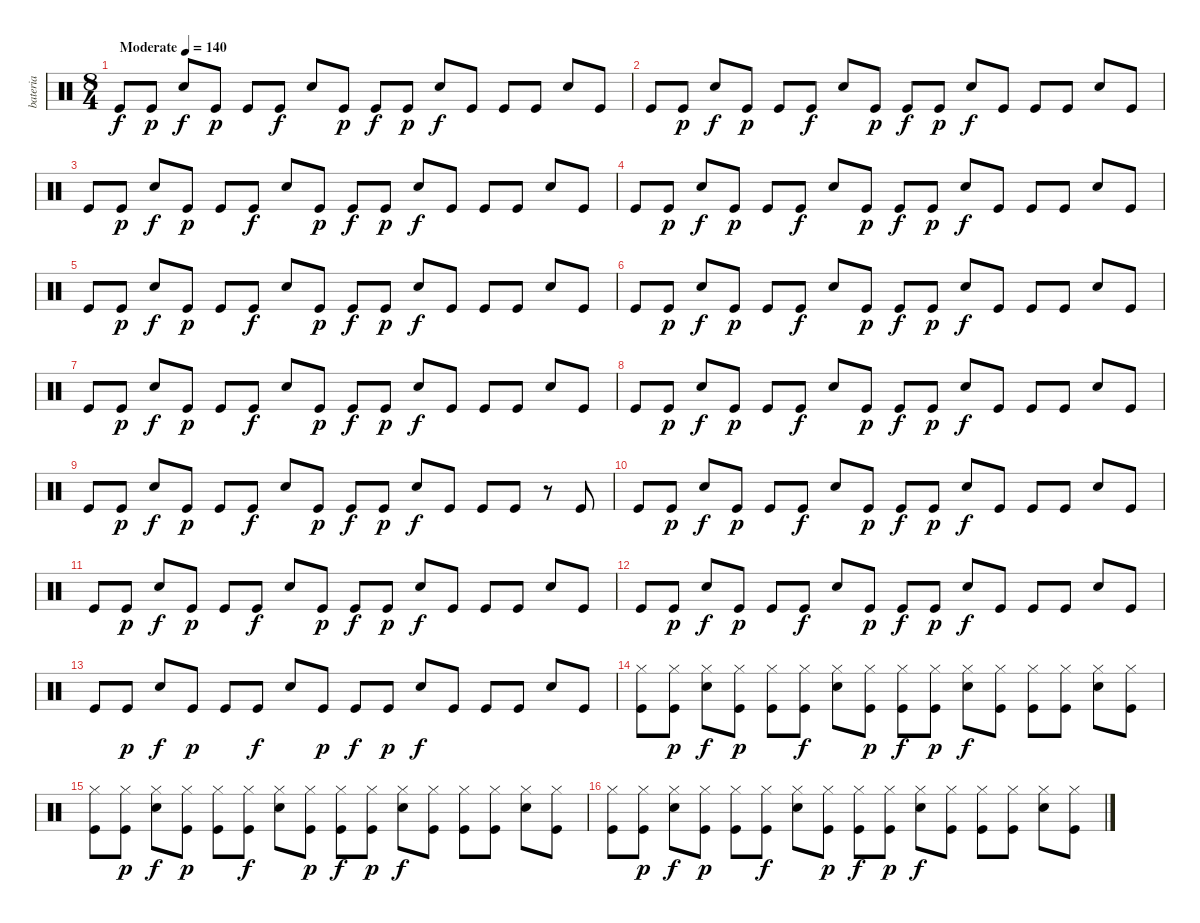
\track ("bateria" "bateria") {instrument percussion}
\staff {score}
\articulation defaults
\ts (8 4)
\tempo (140 "Moderate")
\clef neutral
\ks c "Kick (hit)".8{dy f} "Kick (hit)".8{dy p} "Electric Snare (hit)".8{dy f} "Kick (hit)".8{dy p} "Kick (hit)".8 "Kick (hit)".8{dy f} "Electric Snare (hit)".8 "Kick (hit)".8{dy p} "Kick (hit)".8{dy f} "Kick (hit)".8{dy p} "Electric Snare (hit)".8{dy f} "Kick (hit)".8 "Kick (hit)".8 "Kick (hit)".8 "Electric Snare (hit)".8 "Kick (hit)".8
|
"Kick (hit)".8 "Kick (hit)".8{dy p} "Electric Snare (hit)".8{dy f} "Kick (hit)".8{dy p} "Kick (hit)".8 "Kick (hit)".8{dy f} "Electric Snare (hit)".8 "Kick (hit)".8{dy p} "Kick (hit)".8{dy f} "Kick (hit)".8{dy p} "Electric Snare (hit)".8{dy f} "Kick (hit)".8 "Kick (hit)".8 "Kick (hit)".8 "Electric Snare (hit)".8 "Kick (hit)".8 |
"Kick (hit)".8 "Kick (hit)".8{dy p} "Electric Snare (hit)".8{dy f} "Kick (hit)".8{dy p} "Kick (hit)".8 "Kick (hit)".8{dy f} "Electric Snare (hit)".8 "Kick (hit)".8{dy p} "Kick (hit)".8{dy f} "Kick (hit)".8{dy p} "Electric Snare (hit)".8{dy f} "Kick (hit)".8 "Kick (hit)".8 "Kick (hit)".8 "Electric Snare (hit)".8 "Kick (hit)".8 |
"Kick (hit)".8 "Kick (hit)".8{dy p} "Electric Snare (hit)".8{dy f} "Kick (hit)".8{dy p} "Kick (hit)".8 "Kick (hit)".8{dy f} "Electric Snare (hit)".8 "Kick (hit)".8{dy p} "Kick (hit)".8{dy f} "Kick (hit)".8{dy p} "Electric Snare (hit)".8{dy f} "Kick (hit)".8 "Kick (hit)".8 "Kick (hit)".8 "Electric Snare (hit)".8 "Kick (hit)".8 |
"Kick (hit)".8 "Kick (hit)".8{dy p} "Electric Snare (hit)".8{dy f} "Kick (hit)".8{dy p} "Kick (hit)".8 "Kick (hit)".8{dy f} "Electric Snare (hit)".8 "Kick (hit)".8{dy p} "Kick (hit)".8{dy f} "Kick (hit)".8{dy p} "Electric Snare (hit)".8{dy f} "Kick (hit)".8 "Kick (hit)".8 "Kick (hit)".8 "Electric Snare (hit)".8 "Kick (hit)".8 |
"Kick (hit)".8 "Kick (hit)".8{dy p} "Electric Snare (hit)".8{dy f} "Kick (hit)".8{dy p} "Kick (hit)".8 "Kick (hit)".8{dy f} "Electric Snare (hit)".8 "Kick (hit)".8{dy p} "Kick (hit)".8{dy f} "Kick (hit)".8{dy p} "Electric Snare (hit)".8{dy f} "Kick (hit)".8 "Kick (hit)".8 "Kick (hit)".8 "Electric Snare (hit)".8 "Kick (hit)".8 |
"Kick (hit)".8 "Kick (hit)".8{dy p} "Electric Snare (hit)".8{dy f} "Kick (hit)".8{dy p} "Kick (hit)".8 "Kick (hit)".8{dy f} "Electric Snare (hit)".8 "Kick (hit)".8{dy p} "Kick (hit)".8{dy f} "Kick (hit)".8{dy p} "Electric Snare (hit)".8{dy f} "Kick (hit)".8 "Kick (hit)".8 "Kick (hit)".8 "Electric Snare (hit)".8 "Kick (hit)".8 |
"Kick (hit)".8 "Kick (hit)".8{dy p} "Electric Snare (hit)".8{dy f} "Kick (hit)".8{dy p} "Kick (hit)".8 "Kick (hit)".8{dy f} "Electric Snare (hit)".8 "Kick (hit)".8{dy p} "Kick (hit)".8{dy f} "Kick (hit)".8{dy p} "Electric Snare (hit)".8{dy f} "Kick (hit)".8 "Kick (hit)".8 "Kick (hit)".8 "Electric Snare (hit)".8 "Kick (hit)".8 |
"Kick (hit)".8 "Kick (hit)".8{dy p} "Electric Snare (hit)".8{dy f} "Kick (hit)".8{dy p} "Kick (hit)".8 "Kick (hit)".8{dy f} "Electric Snare (hit)".8 "Kick (hit)".8{dy p} "Kick (hit)".8{dy f} "Kick (hit)".8{dy p} "Electric Snare (hit)".8{dy f} "Kick (hit)".8 "Kick (hit)".8 "Kick (hit)".8 r.8 "Kick (hit)".8 |
"Kick (hit)".8 "Kick (hit)".8{dy p} "Electric Snare (hit)".8{dy f} "Kick (hit)".8{dy p} "Kick (hit)".8 "Kick (hit)".8{dy f} "Electric Snare (hit)".8 "Kick (hit)".8{dy p} "Kick (hit)".8{dy f} "Kick (hit)".8{dy p} "Electric Snare (hit)".8{dy f} "Kick (hit)".8 "Kick (hit)".8 "Kick (hit)".8 "Electric Snare (hit)".8 "Kick (hit)".8 |
"Kick (hit)".8 "Kick (hit)".8{dy p} "Electric Snare (hit)".8{dy f} "Kick (hit)".8{dy p} "Kick (hit)".8 "Kick (hit)".8{dy f} "Electric Snare (hit)".8 "Kick (hit)".8{dy p} "Kick (hit)".8{dy f} "Kick (hit)".8{dy p} "Electric Snare (hit)".8{dy f} "Kick (hit)".8 "Kick (hit)".8 "Kick (hit)".8 "Electric Snare (hit)".8 "Kick (hit)".8 |
"Kick (hit)".8 "Kick (hit)".8{dy p} "Electric Snare (hit)".8{dy f} "Kick (hit)".8{dy p} "Kick (hit)".8 "Kick (hit)".8{dy f} "Electric Snare (hit)".8 "Kick (hit)".8{dy p} "Kick (hit)".8{dy f} "Kick (hit)".8{dy p} "Electric Snare (hit)".8{dy f} "Kick (hit)".8 "Kick (hit)".8 "Kick (hit)".8 "Electric Snare (hit)".8 "Kick (hit)".8 |
"Kick (hit)".8 "Kick (hit)".8{dy p} "Electric Snare (hit)".8{dy f} "Kick (hit)".8{dy p} "Kick (hit)".8 "Kick (hit)".8{dy f} "Electric Snare (hit)".8 "Kick (hit)".8{dy p} "Kick (hit)".8{dy f} "Kick (hit)".8{dy p} "Electric Snare (hit)".8{dy f} "Kick (hit)".8 "Kick (hit)".8 "Kick (hit)".8 "Electric Snare (hit)".8 "Kick (hit)".8 |
("Hi-Hat (closed)" "Kick (hit)").8 ("Hi-Hat (closed)" "Kick (hit)").8{dy p} ("Hi-Hat (closed)" "Electric Snare (hit)").8{dy f} ("Hi-Hat (closed)" "Kick (hit)").8{dy p} ("Hi-Hat (closed)" "Kick (hit)").8 ("Hi-Hat (closed)" "Kick (hit)").8{dy f} ("Hi-Hat (closed)" "Electric Snare (hit)").8 ("Hi-Hat (closed)" "Kick (hit)").8{dy p} ("Hi-Hat (closed)" "Kick (hit)").8{dy f} ("Hi-Hat (closed)" "Kick (hit)").8{dy p} ("Hi-Hat (closed)" "Electric Snare (hit)").8{dy f} ("Hi-Hat (closed)" "Kick (hit)").8 ("Hi-Hat (closed)" "Kick (hit)").8 ("Hi-Hat (closed)" "Kick (hit)").8 ("Hi-Hat (closed)" "Electric Snare (hit)").8 ("Hi-Hat (closed)" "Kick (hit)").8 |
("Hi-Hat (closed)" "Kick (hit)").8 ("Hi-Hat (closed)" "Kick (hit)").8{dy p} ("Hi-Hat (closed)" "Electric Snare (hit)").8{dy f} ("Hi-Hat (closed)" "Kick (hit)").8{dy p} ("Hi-Hat (closed)" "Kick (hit)").8 ("Hi-Hat (closed)" "Kick (hit)").8{dy f} ("Hi-Hat (closed)" "Electric Snare (hit)").8 ("Hi-Hat (closed)" "Kick (hit)").8{dy p} ("Hi-Hat (closed)" "Kick (hit)").8{dy f} ("Hi-Hat (closed)" "Kick (hit)").8{dy p} ("Hi-Hat (closed)" "Electric Snare (hit)").8{dy f} ("Hi-Hat (closed)" "Kick (hit)").8 ("Hi-Hat (closed)" "Kick (hit)").8 ("Hi-Hat (closed)" "Kick (hit)").8 ("Hi-Hat (closed)" "Electric Snare (hit)").8 ("Hi-Hat (closed)" "Kick (hit)").8 |
("Hi-Hat (closed)" "Kick (hit)").8 ("Hi-Hat (closed)" "Kick (hit)").8{dy p} ("Hi-Hat (closed)" "Electric Snare (hit)").8{dy f} ("Hi-Hat (closed)" "Kick (hit)").8{dy p} ("Hi-Hat (closed)" "Kick (hit)").8 ("Hi-Hat (closed)" "Kick (hit)").8{dy f} ("Hi-Hat (closed)" "Electric Snare (hit)").8 ("Hi-Hat (closed)" "Kick (hit)").8{dy p} ("Hi-Hat (closed)" "Kick (hit)").8{dy f} ("Hi-Hat (closed)" "Kick (hit)").8{dy p} ("Hi-Hat (closed)" "Electric Snare (hit)").8{dy f} ("Hi-Hat (closed)" "Kick (hit)").8 ("Hi-Hat (closed)" "Kick (hit)").8 ("Hi-Hat (closed)" "Kick (hit)").8 ("Hi-Hat (closed)" "Electric Snare (hit)").8 ("Hi-Hat (closed)" "Kick (hit)").8
